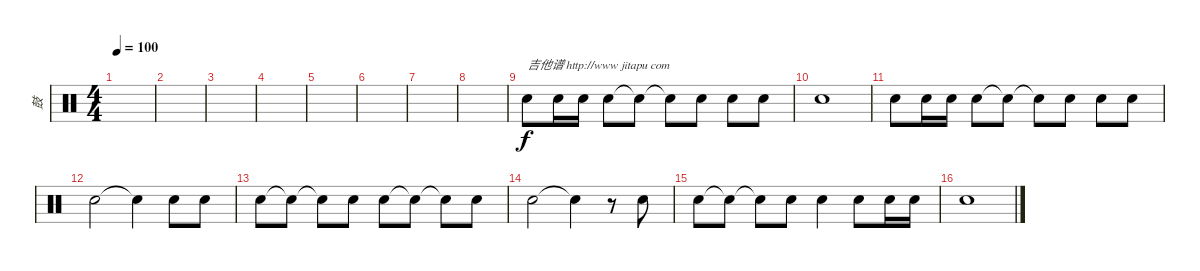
\track ("鼓" "鼓") {instrument percussion}
\staff {score}
\articulation defaults
\ts (4 4)
\tempo 100
\clef neutral
\ks c
|
|
|
|
|
|
|
|
"Snare (hit)".8{txt "吉他谱 http://www jitapu com"} "Snare (hit)".16 "Snare (hit)".16 "Snare (hit)".8 "Snare (hit)"{t}.8 "Snare (hit)"{t}.8 "Snare (hit)".8 "Snare (hit)".8 "Snare (hit)".8 |
"Snare (hit)".1 |
"Snare (hit)".8 "Snare (hit)".16 "Snare (hit)".16 "Snare (hit)".8 "Snare (hit)"{t}.8 "Snare (hit)"{t}.8 "Snare (hit)".8 "Snare (hit)".8 "Snare (hit)".8 |
"Snare (hit)".2 "Snare (hit)"{t}.4 "Snare (hit)".8 "Snare (hit)".8 |
"Snare (hit)".8 "Snare (hit)"{t}.8 "Snare (hit)"{t}.8 "Snare (hit)".8 "Snare (hit)".8 "Snare (hit)"{t}.8 "Snare (hit)"{t}.8 "Snare (hit)".8 |
"Snare (hit)".2 "Snare (hit)"{t}.4 r.8 "Snare (hit)".8 |
"Snare (hit)".8 "Snare (hit)"{t}.8 "Snare (hit)"{t}.8 "Snare (hit)".8 "Snare (hit)".4 "Snare (hit)".8 "Snare (hit)".16 "Snare (hit)".16 |
"Snare (hit)".1
